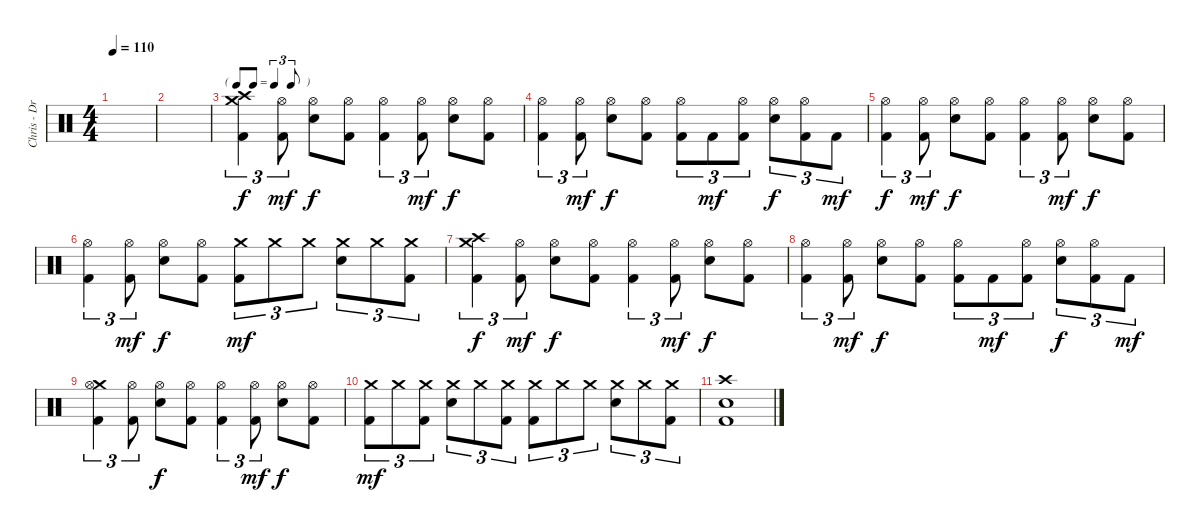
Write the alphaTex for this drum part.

\track ("Chris - Drums" "Chris - Dr") {instrument percussion}
\staff {score}
\articulation defaults
\ts (4 4)
\tempo 110
\clef neutral
\ks c
|
|
\tf triplet8th
("Crash medium (hit)" "Crash high (hit)" "Kick (hit) 2").4{tu (3 2)} ("Hi-Hat (open)" "Kick (hit) 2").8{tu (3 2) dy mf} ("Hi-Hat (open)" "Electric Snare (hit)").8{dy f} ("Hi-Hat (open)" "Kick (hit) 2").8 ("Hi-Hat (open)" "Kick (hit) 2").4{tu (3 2)} ("Hi-Hat (open)" "Kick (hit) 2").8{tu (3 2) dy mf} ("Hi-Hat (open)" "Electric Snare (hit)").8{dy f} ("Hi-Hat (open)" "Kick (hit) 2").8 |
("Hi-Hat (open)" "Kick (hit) 2").4{tu (3 2)} ("Hi-Hat (open)" "Kick (hit) 2").8{tu (3 2) dy mf} ("Hi-Hat (open)" "Electric Snare (hit)").8{dy f} ("Hi-Hat (open)" "Kick (hit) 2").8 ("Hi-Hat (open)" "Kick (hit) 2").8{tu (3 2)} "Kick (hit) 2".8{tu (3 2) dy mf} ("Hi-Hat (open)" "Kick (hit) 2").8{tu (3 2)} ("Hi-Hat (open)" "Electric Snare (hit)").8{tu (3 2) dy f} ("Hi-Hat (open)" "Kick (hit) 2").8{tu (3 2)} "Kick (hit) 2".8{tu (3 2) dy mf} |
("Hi-Hat (open)" "Kick (hit) 2").4{tu (3 2) dy f} ("Hi-Hat (open)" "Kick (hit) 2").8{tu (3 2) dy mf} ("Hi-Hat (open)" "Electric Snare (hit)").8{dy f} ("Hi-Hat (open)" "Kick (hit) 2").8 ("Hi-Hat (open)" "Kick (hit) 2").4{tu (3 2)} ("Hi-Hat (open)" "Kick (hit) 2").8{tu (3 2) dy mf} ("Hi-Hat (open)" "Electric Snare (hit)").8{dy f} ("Hi-Hat (open)" "Kick (hit) 2").8 |
("Hi-Hat (open)" "Kick (hit) 2").4{tu (3 2)} ("Hi-Hat (open)" "Kick (hit) 2").8{tu (3 2) dy mf} ("Hi-Hat (open)" "Electric Snare (hit)").8{dy f} ("Hi-Hat (open)" "Kick (hit) 2").8 ("Crash medium (hit)" "Kick (hit) 2").8{tu (3 2) dy mf} "Crash medium (hit)".8{tu (3 2)} "Crash medium (hit)".8{tu (3 2)} ("Crash medium (hit)" "Electric Snare (hit)").8{tu (3 2)} "Crash medium (hit)".8{tu (3 2)} ("Crash medium (hit)" "Kick (hit) 2").8{tu (3 2)} |
("Crash medium (hit)" "Crash high (hit)" "Kick (hit) 2").4{tu (3 2) dy f} ("Hi-Hat (open)" "Kick (hit) 2").8{tu (3 2) dy mf} ("Hi-Hat (open)" "Electric Snare (hit)").8{dy f} ("Hi-Hat (open)" "Kick (hit) 2").8 ("Hi-Hat (open)" "Kick (hit) 2").4{tu (3 2)} ("Hi-Hat (open)" "Kick (hit) 2").8{tu (3 2) dy mf} ("Hi-Hat (open)" "Electric Snare (hit)").8{dy f} ("Hi-Hat (open)" "Kick (hit) 2").8 |
("Hi-Hat (open)" "Kick (hit) 2").4{tu (3 2)} ("Hi-Hat (open)" "Kick (hit) 2").8{tu (3 2) dy mf} ("Hi-Hat (open)" "Electric Snare (hit)").8{dy f} ("Hi-Hat (open)" "Kick (hit) 2").8 ("Hi-Hat (open)" "Kick (hit) 2").8{tu (3 2)} "Kick (hit) 2".8{tu (3 2) dy mf} ("Hi-Hat (open)" "Kick (hit) 2").8{tu (3 2)} ("Hi-Hat (open)" "Electric Snare (hit)").8{tu (3 2) dy f} ("Hi-Hat (open)" "Kick (hit) 2").8{tu (3 2)} "Kick (hit) 2".8{tu (3 2) dy mf} |
("Crash medium (hit)" "Hi-Hat (open)" "Kick (hit) 2").4{tu (3 2)} ("Hi-Hat (open)" "Kick (hit) 2").8{tu (3 2)} ("Hi-Hat (open)" "Electric Snare (hit)").8{dy f} ("Hi-Hat (open)" "Kick (hit) 2").8 ("Hi-Hat (open)" "Kick (hit) 2").4{tu (3 2)} ("Hi-Hat (open)" "Kick (hit) 2").8{tu (3 2) dy mf} ("Hi-Hat (open)" "Electric Snare (hit)").8{dy f} ("Hi-Hat (open)" "Kick (hit) 2").8 |
("Crash medium (hit)" "Kick (hit) 2").8{tu (3 2) dy mf} "Crash medium (hit)".8{tu (3 2)} ("Crash medium (hit)" "Kick (hit) 2").8{tu (3 2)} ("Crash medium (hit)" "Electric Snare (hit)").8{tu (3 2)} "Crash medium (hit)".8{tu (3 2)} ("Crash medium (hit)" "Kick (hit) 2").8{tu (3 2)} ("Crash medium (hit)" "Kick (hit) 2").8{tu (3 2)} "Crash medium (hit)".8{tu (3 2)} "Crash medium (hit)".8{tu (3 2)} ("Crash medium (hit)" "Electric Snare (hit)").8{tu (3 2)} "Crash medium (hit)".8{tu (3 2)} ("Crash medium (hit)" "Kick (hit) 2").8{tu (3 2)} |
("Crash high (hit)" "Electric Snare (hit)" "Kick (hit) 2").1
